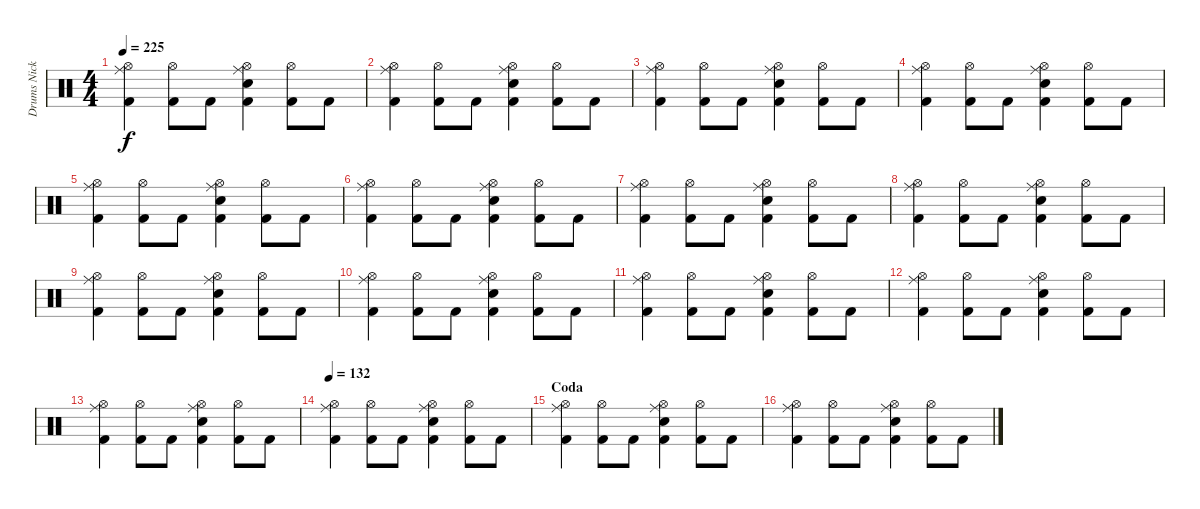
\track ("Drums Nicko McBrain" "Drums Nick") {instrument percussion}
\staff {score}
\articulation defaults
\ts (4 4)
\tempo 225
\clef neutral
\ks c
("Hi-Hat (open)" "Ride (middle)" "Kick (hit) 2").4{dy f} ("Hi-Hat (open)" "Kick (hit) 2").8 "Kick (hit) 2".8 ("Hi-Hat (open)" "Snare (hit) 2" "Ride (middle)" "Kick (hit) 2").4 ("Hi-Hat (open)" "Kick (hit) 2").8 "Kick (hit) 2".8 |
("Hi-Hat (open)" "Ride (middle)" "Kick (hit) 2").4 ("Hi-Hat (open)" "Kick (hit) 2").8 "Kick (hit) 2".8 ("Hi-Hat (open)" "Snare (hit) 2" "Ride (middle)" "Kick (hit) 2").4 ("Hi-Hat (open)" "Kick (hit) 2").8 "Kick (hit) 2".8 |
("Hi-Hat (open)" "Ride (middle)" "Kick (hit) 2").4 ("Hi-Hat (open)" "Kick (hit) 2").8 "Kick (hit) 2".8 ("Hi-Hat (open)" "Snare (hit) 2" "Ride (middle)" "Kick (hit) 2").4 ("Hi-Hat (open)" "Kick (hit) 2").8 "Kick (hit) 2".8 |
("Hi-Hat (open)" "Ride (middle)" "Kick (hit) 2").4 ("Hi-Hat (open)" "Kick (hit) 2").8 "Kick (hit) 2".8 ("Hi-Hat (open)" "Snare (hit) 2" "Ride (middle)" "Kick (hit) 2").4 ("Hi-Hat (open)" "Kick (hit) 2").8 "Kick (hit) 2".8 |
("Hi-Hat (open)" "Ride (middle)" "Kick (hit) 2").4 ("Hi-Hat (open)" "Kick (hit) 2").8 "Kick (hit) 2".8 ("Hi-Hat (open)" "Snare (hit) 2" "Ride (middle)" "Kick (hit) 2").4 ("Hi-Hat (open)" "Kick (hit) 2").8 "Kick (hit) 2".8 |
("Hi-Hat (open)" "Ride (middle)" "Kick (hit) 2").4 ("Hi-Hat (open)" "Kick (hit) 2").8 "Kick (hit) 2".8 ("Hi-Hat (open)" "Snare (hit) 2" "Ride (middle)" "Kick (hit) 2").4 ("Hi-Hat (open)" "Kick (hit) 2").8 "Kick (hit) 2".8 |
("Hi-Hat (open)" "Ride (middle)" "Kick (hit) 2").4 ("Hi-Hat (open)" "Kick (hit) 2").8 "Kick (hit) 2".8 ("Hi-Hat (open)" "Snare (hit) 2" "Ride (middle)" "Kick (hit) 2").4 ("Hi-Hat (open)" "Kick (hit) 2").8 "Kick (hit) 2".8 |
("Hi-Hat (open)" "Ride (middle)" "Kick (hit) 2").4 ("Hi-Hat (open)" "Kick (hit) 2").8 "Kick (hit) 2".8 ("Hi-Hat (open)" "Snare (hit) 2" "Ride (middle)" "Kick (hit) 2").4 ("Hi-Hat (open)" "Kick (hit) 2").8 "Kick (hit) 2".8 |
("Hi-Hat (open)" "Ride (middle)" "Kick (hit) 2").4 ("Hi-Hat (open)" "Kick (hit) 2").8 "Kick (hit) 2".8 ("Hi-Hat (open)" "Snare (hit) 2" "Ride (middle)" "Kick (hit) 2").4 ("Hi-Hat (open)" "Kick (hit) 2").8 "Kick (hit) 2".8 |
("Hi-Hat (open)" "Ride (middle)" "Kick (hit) 2").4 ("Hi-Hat (open)" "Kick (hit) 2").8 "Kick (hit) 2".8 ("Hi-Hat (open)" "Snare (hit) 2" "Ride (middle)" "Kick (hit) 2").4 ("Hi-Hat (open)" "Kick (hit) 2").8 "Kick (hit) 2".8 |
("Hi-Hat (open)" "Ride (middle)" "Kick (hit) 2").4 ("Hi-Hat (open)" "Kick (hit) 2").8 "Kick (hit) 2".8 ("Hi-Hat (open)" "Snare (hit) 2" "Ride (middle)" "Kick (hit) 2").4 ("Hi-Hat (open)" "Kick (hit) 2").8 "Kick (hit) 2".8 |
("Hi-Hat (open)" "Ride (middle)" "Kick (hit) 2").4 ("Hi-Hat (open)" "Kick (hit) 2").8 "Kick (hit) 2".8 ("Hi-Hat (open)" "Snare (hit) 2" "Ride (middle)" "Kick (hit) 2").4 ("Hi-Hat (open)" "Kick (hit) 2").8 "Kick (hit) 2".8 |
("Hi-Hat (open)" "Ride (middle)" "Kick (hit) 2").4 ("Hi-Hat (open)" "Kick (hit) 2").8 "Kick (hit) 2".8 ("Hi-Hat (open)" "Snare (hit) 2" "Ride (middle)" "Kick (hit) 2").4 ("Hi-Hat (open)" "Kick (hit) 2").8 "Kick (hit) 2".8 |
\tempo 132
("Hi-Hat (open)" "Ride (middle)" "Kick (hit) 2").4 ("Hi-Hat (open)" "Kick (hit) 2").8 "Kick (hit) 2".8 ("Hi-Hat (open)" "Snare (hit) 2" "Ride (middle)" "Kick (hit) 2").4 ("Hi-Hat (open)" "Kick (hit) 2").8 "Kick (hit) 2".8 |
\section ("" "Coda")
("Hi-Hat (open)" "Ride (middle)" "Kick (hit) 2").4 ("Hi-Hat (open)" "Kick (hit) 2").8 "Kick (hit) 2".8 ("Hi-Hat (open)" "Snare (hit) 2" "Ride (middle)" "Kick (hit) 2").4 ("Hi-Hat (open)" "Kick (hit) 2").8 "Kick (hit) 2".8 |
("Hi-Hat (open)" "Ride (middle)" "Kick (hit) 2").4 ("Hi-Hat (open)" "Kick (hit) 2").8 "Kick (hit) 2".8 ("Hi-Hat (open)" "Snare (hit) 2" "Ride (middle)" "Kick (hit) 2").4 ("Hi-Hat (open)" "Kick (hit) 2").8 "Kick (hit) 2".8
